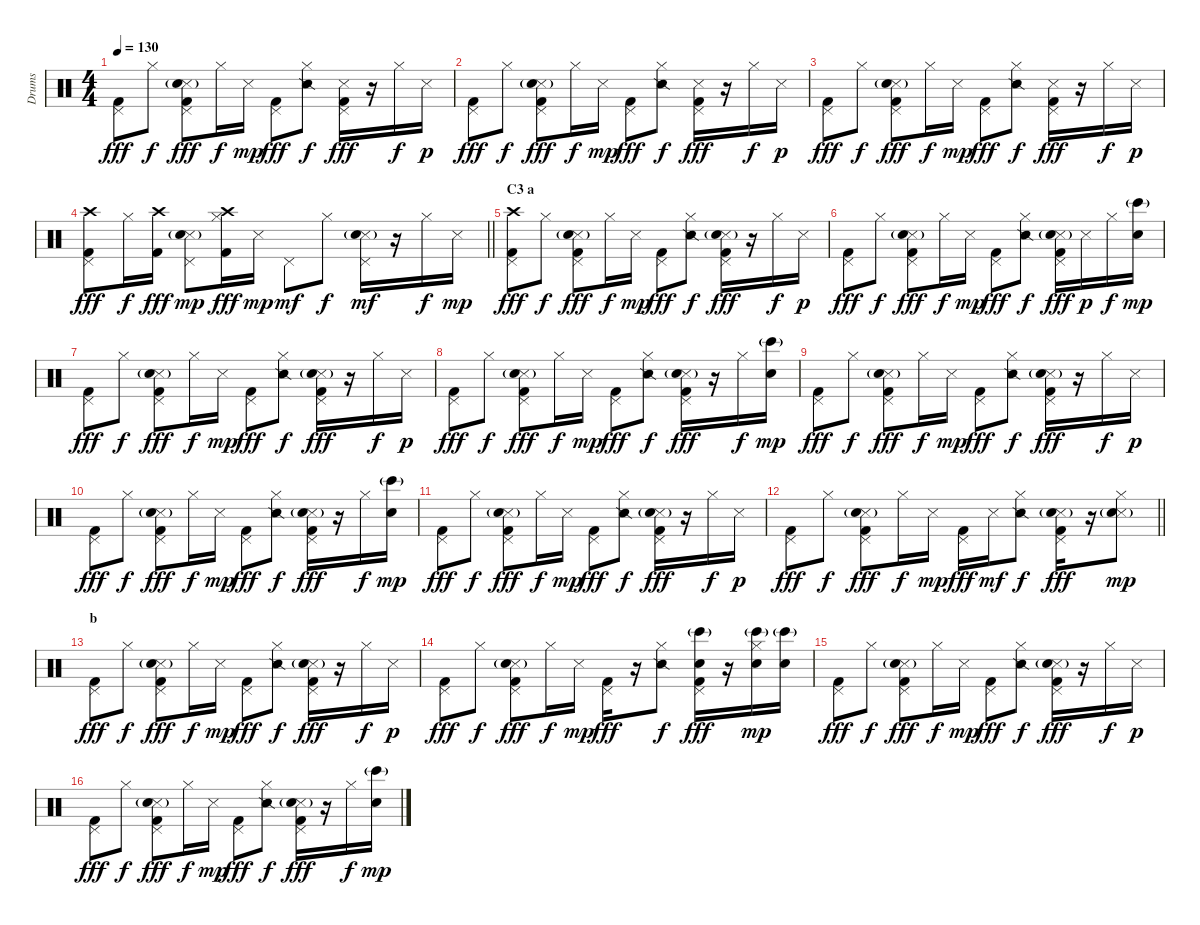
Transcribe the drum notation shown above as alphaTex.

\track ("Drums" "Drums") {instrument percussion}
\staff {score}
\articulation defaults
\ts (4 4)
\tempo 130
\clef neutral
\ks c
("Pedal Hi-Hat (hit)" "Kick (hit) 2").8{dy fff} "Hi-Hat (closed)".8{dy f} ("Pedal Hi-Hat (hit)" "Snare (side stick) 3"{g} "Electric Snare (hit)" "Kick (hit) 2").8{dy fff} "Hi-Hat (closed)".16{dy f} "Snare (side stick) 3".16{dy mp} ("Pedal Hi-Hat (hit)" "Kick (hit) 2").8{dy fff} ("Hi-Hat (closed)" "Snare (side stick) 2").8{dy f} ("Pedal Hi-Hat (hit)" "Snare (side stick) 3" "Kick (hit) 2").16{dy fff} r.16 "Hi-Hat (closed)".16{dy f} "Snare (side stick) 3".16{dy p} |
("Pedal Hi-Hat (hit)" "Kick (hit) 2").8{dy fff} "Hi-Hat (closed)".8{dy f} ("Pedal Hi-Hat (hit)" "Snare (side stick) 3"{g} "Electric Snare (hit)" "Kick (hit) 2").8{dy fff} "Hi-Hat (closed)".16{dy f} "Snare (side stick) 3".16{dy mp} ("Pedal Hi-Hat (hit)" "Kick (hit) 2").8{dy fff} ("Hi-Hat (closed)" "Snare (side stick) 2").8{dy f} ("Pedal Hi-Hat (hit)" "Snare (side stick) 3" "Kick (hit) 2").16{dy fff} r.16 "Hi-Hat (closed)".16{dy f} "Snare (side stick) 3".16{dy p} |
("Pedal Hi-Hat (hit)" "Kick (hit) 2").8{dy fff} "Hi-Hat (closed)".8{dy f} ("Pedal Hi-Hat (hit)" "Snare (side stick) 3"{g} "Electric Snare (hit)" "Kick (hit) 2").8{dy fff} "Hi-Hat (closed)".16{dy f} "Snare (side stick) 3".16{dy mp} ("Pedal Hi-Hat (hit)" "Kick (hit) 2").8{dy fff} ("Hi-Hat (closed)" "Snare (side stick) 2").8{dy f} ("Pedal Hi-Hat (hit)" "Snare (side stick) 3" "Kick (hit) 2").16{dy fff} r.16 "Hi-Hat (closed)".16{dy f} "Snare (side stick) 3".16{dy p} |
\barLineRight lightlight
("Crash high (hit)" "Pedal Hi-Hat (hit)" "Kick (hit) 2").8{dy fff} "Hi-Hat (closed)".16{dy f} ("Crash high (hit)" "Kick (hit) 2").16{dy fff} ("Pedal Hi-Hat (hit)" "Snare (side stick) 3"{g} "Electric Snare (hit)"{g}).8{dy mp} ("Crash high (hit)" "Hi-Hat (closed)" "Kick (hit) 2").16{dy fff} "Snare (side stick) 3".16{dy mp} "Pedal Hi-Hat (hit)".8{dy mf} "Hi-Hat (closed)".8{dy f} ("Pedal Hi-Hat (hit)" "Snare (side stick) 3"{g} "Electric Snare (hit)"{g}).16{dy mf} r.16 "Hi-Hat (closed)".16{dy f} "Snare (side stick) 3".16{dy mp} |
\section ("" "C3 a")
("Crash high (hit)" "Pedal Hi-Hat (hit)" "Kick (hit) 2").8{dy fff} "Hi-Hat (closed)".8{dy f} ("Pedal Hi-Hat (hit)" "Snare (side stick) 3"{g} "Electric Snare (hit)" "Kick (hit) 2").8{dy fff} "Hi-Hat (closed)".16{dy f} "Snare (side stick) 3".16{dy mp} ("Pedal Hi-Hat (hit)" "Kick (hit) 2").8{dy fff} ("Hi-Hat (closed)" "Snare (side stick) 2").8{dy f} ("Pedal Hi-Hat (hit)" "Snare (side stick) 3"{g} "Electric Snare (hit)" "Kick (hit) 2").16{dy fff} r.16 "Hi-Hat (closed)".16{dy f} "Snare (side stick) 3".16{dy p} |
("Pedal Hi-Hat (hit)" "Kick (hit) 2").8{dy fff} "Hi-Hat (closed)".8{dy f} ("Pedal Hi-Hat (hit)" "Snare (side stick) 3"{g} "Electric Snare (hit)" "Kick (hit) 2").8{dy fff} "Hi-Hat (closed)".16{dy f} "Snare (side stick) 3".16{dy mp} ("Pedal Hi-Hat (hit)" "Kick (hit) 2").8{dy fff} ("Hi-Hat (closed)" "Snare (side stick) 2").8{dy f} ("Pedal Hi-Hat (hit)" "Snare (side stick) 3"{g} "Electric Snare (hit)" "Kick (hit) 2").16{dy fff} "Snare (side stick) 3".16{dy p} "Hi-Hat (closed)".16{dy f} ("Bongo High (hit)"{g} "Electric Snare (hit)").16{dy mp} |
("Pedal Hi-Hat (hit)" "Kick (hit) 2").8{dy fff} "Hi-Hat (closed)".8{dy f} ("Pedal Hi-Hat (hit)" "Snare (side stick) 3"{g} "Electric Snare (hit)" "Kick (hit) 2").8{dy fff} "Hi-Hat (closed)".16{dy f} "Snare (side stick) 3".16{dy mp} ("Pedal Hi-Hat (hit)" "Kick (hit) 2").8{dy fff} ("Hi-Hat (closed)" "Snare (side stick) 2").8{dy f} ("Pedal Hi-Hat (hit)" "Snare (side stick) 3"{g} "Electric Snare (hit)" "Kick (hit) 2").16{dy fff} r.16 "Hi-Hat (closed)".16{dy f} "Snare (side stick) 3".16{dy p} |
("Pedal Hi-Hat (hit)" "Kick (hit) 2").8{dy fff} "Hi-Hat (closed)".8{dy f} ("Pedal Hi-Hat (hit)" "Snare (side stick) 3"{g} "Electric Snare (hit)" "Kick (hit) 2").8{dy fff} "Hi-Hat (closed)".16{dy f} "Snare (side stick) 3".16{dy mp} ("Pedal Hi-Hat (hit)" "Kick (hit) 2").8{dy fff} ("Hi-Hat (closed)" "Snare (side stick) 2").8{dy f} ("Pedal Hi-Hat (hit)" "Snare (side stick) 3"{g} "Electric Snare (hit)" "Kick (hit) 2").16{dy fff} r.16 "Hi-Hat (closed)".16{dy f} ("Bongo High (hit)"{g} "Electric Snare (hit)").16{dy mp} |
("Pedal Hi-Hat (hit)" "Kick (hit) 2").8{dy fff} "Hi-Hat (closed)".8{dy f} ("Pedal Hi-Hat (hit)" "Snare (side stick) 3"{g} "Electric Snare (hit)" "Kick (hit) 2").8{dy fff} "Hi-Hat (closed)".16{dy f} "Snare (side stick) 3".16{dy mp} ("Pedal Hi-Hat (hit)" "Kick (hit) 2").8{dy fff} ("Hi-Hat (closed)" "Snare (side stick) 2").8{dy f} ("Pedal Hi-Hat (hit)" "Snare (side stick) 3"{g} "Electric Snare (hit)" "Kick (hit) 2").16{dy fff} r.16 "Hi-Hat (closed)".16{dy f} "Snare (side stick) 3".16{dy p} |
("Pedal Hi-Hat (hit)" "Kick (hit) 2").8{dy fff} "Hi-Hat (closed)".8{dy f} ("Pedal Hi-Hat (hit)" "Snare (side stick) 3"{g} "Electric Snare (hit)" "Kick (hit) 2").8{dy fff} "Hi-Hat (closed)".16{dy f} "Snare (side stick) 3".16{dy mp} ("Pedal Hi-Hat (hit)" "Kick (hit) 2").8{dy fff} ("Hi-Hat (closed)" "Snare (side stick) 2").8{dy f} ("Pedal Hi-Hat (hit)" "Snare (side stick) 3"{g} "Electric Snare (hit)" "Kick (hit) 2").16{dy fff} r.16 "Hi-Hat (closed)".16{dy f} ("Bongo High (hit)"{g} "Electric Snare (hit)").16{dy mp} |
("Pedal Hi-Hat (hit)" "Kick (hit) 2").8{dy fff} "Hi-Hat (closed)".8{dy f} ("Pedal Hi-Hat (hit)" "Snare (side stick) 3"{g} "Electric Snare (hit)" "Kick (hit) 2").8{dy fff} "Hi-Hat (closed)".16{dy f} "Snare (side stick) 3".16{dy mp} ("Pedal Hi-Hat (hit)" "Kick (hit) 2").8{dy fff} ("Hi-Hat (closed)" "Snare (side stick) 2").8{dy f} ("Pedal Hi-Hat (hit)" "Snare (side stick) 3"{g} "Electric Snare (hit)" "Kick (hit) 2").16{dy fff} r.16 "Hi-Hat (closed)".16{dy f} "Snare (side stick) 3".16{dy p} |
\barLineRight lightlight
("Pedal Hi-Hat (hit)" "Kick (hit) 2").8{dy fff} "Hi-Hat (closed)".8{dy f} ("Pedal Hi-Hat (hit)" "Snare (side stick) 3"{g} "Electric Snare (hit)" "Kick (hit) 2").8{dy fff} "Hi-Hat (closed)".16{dy f} "Snare (side stick) 3".16{dy mp} ("Pedal Hi-Hat (hit)" "Kick (hit) 2").16{dy fff} "Snare (side stick) 3".16{dy mf} ("Hi-Hat (closed)" "Snare (side stick) 2").8{dy f} ("Pedal Hi-Hat (hit)" "Snare (side stick) 3"{g} "Electric Snare (hit)" "Kick (hit) 2").16{dy fff} r.16 ("Hi-Hat (closed)" "Snare (side stick) 3"{g} "Electric Snare (hit)").8{dy mp} |
\section ("" "b")
("Pedal Hi-Hat (hit)" "Kick (hit) 2").8{dy fff} "Hi-Hat (closed)".8{dy f} ("Pedal Hi-Hat (hit)" "Snare (side stick) 3"{g} "Electric Snare (hit)" "Kick (hit) 2").8{dy fff} "Hi-Hat (closed)".16{dy f} "Snare (side stick) 3".16{dy mp} ("Pedal Hi-Hat (hit)" "Kick (hit) 2").8{dy fff} ("Hi-Hat (closed)" "Snare (side stick) 2").8{dy f} ("Pedal Hi-Hat (hit)" "Snare (side stick) 3"{g} "Electric Snare (hit)" "Kick (hit) 2").16{dy fff} r.16 "Hi-Hat (closed)".16{dy f} "Snare (side stick) 3".16{dy p} |
("Pedal Hi-Hat (hit)" "Kick (hit) 2").8{dy fff} "Hi-Hat (closed)".8{dy f} ("Pedal Hi-Hat (hit)" "Snare (side stick) 3"{g} "Electric Snare (hit)" "Kick (hit) 2").8{dy fff} "Hi-Hat (closed)".16{dy f} "Snare (side stick) 3".16{dy mp} ("Pedal Hi-Hat (hit)" "Kick (hit) 2").16{dy fff} r.16 ("Hi-Hat (closed)" "Snare (side stick) 2").8{dy f} ("Pedal Hi-Hat (hit)" "Bongo High (hit)"{g} "Electric Snare (hit)" "Kick (hit) 2").16{dy fff} r.16 ("Hi-Hat (closed)" "Bongo High (hit)"{g} "Electric Snare (hit)").16{dy mp} ("Bongo High (hit)"{g} "Electric Snare (hit)").16 |
("Pedal Hi-Hat (hit)" "Kick (hit) 2").8{dy fff} "Hi-Hat (closed)".8{dy f} ("Pedal Hi-Hat (hit)" "Snare (side stick) 3"{g} "Electric Snare (hit)" "Kick (hit) 2").8{dy fff} "Hi-Hat (closed)".16{dy f} "Snare (side stick) 3".16{dy mp} ("Pedal Hi-Hat (hit)" "Kick (hit) 2").8{dy fff} ("Hi-Hat (closed)" "Snare (side stick) 2").8{dy f} ("Pedal Hi-Hat (hit)" "Snare (side stick) 3"{g} "Electric Snare (hit)" "Kick (hit) 2").16{dy fff} r.16 "Hi-Hat (closed)".16{dy f} "Snare (side stick) 3".16{dy p} |
("Pedal Hi-Hat (hit)" "Kick (hit) 2").8{dy fff} "Hi-Hat (closed)".8{dy f} ("Pedal Hi-Hat (hit)" "Snare (side stick) 3"{g} "Electric Snare (hit)" "Kick (hit) 2").8{dy fff} "Hi-Hat (closed)".16{dy f} "Snare (side stick) 3".16{dy mp} ("Pedal Hi-Hat (hit)" "Kick (hit) 2").8{dy fff} ("Hi-Hat (closed)" "Snare (side stick) 2").8{dy f} ("Pedal Hi-Hat (hit)" "Snare (side stick) 3"{g} "Electric Snare (hit)" "Kick (hit) 2").16{dy fff} r.16 "Hi-Hat (closed)".16{dy f} ("Bongo High (hit)"{g} "Electric Snare (hit)").16{dy mp}
